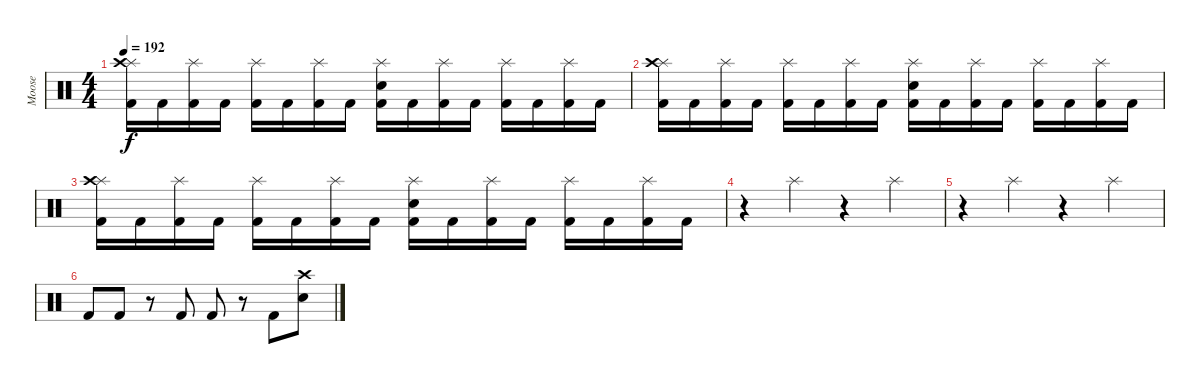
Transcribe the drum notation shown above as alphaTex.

\track ("Moose" "Moose") {instrument percussion}
\staff {score}
\articulation defaults
\ts (4 4)
\tempo 192
\clef neutral
\ks c
("Splash (hit)" "Crash high (hit)" "Kick (hit) 2").16{dy f} "Kick (hit) 2".16 ("Splash (hit)" "Kick (hit) 2").16 "Kick (hit) 2".16 ("Splash (hit)" "Kick (hit) 2").16 "Kick (hit) 2".16 ("Splash (hit)" "Kick (hit) 2").16 "Kick (hit) 2".16 ("Splash (hit)" "Electric Snare (hit)" "Kick (hit) 2").16 "Kick (hit) 2".16 ("Splash (hit)" "Kick (hit) 2").16 "Kick (hit) 2".16 ("Splash (hit)" "Kick (hit) 2").16 "Kick (hit) 2".16 ("Splash (hit)" "Kick (hit) 2").16 "Kick (hit) 2".16 |
("Splash (hit)" "Crash high (hit)" "Kick (hit) 2").16 "Kick (hit) 2".16 ("Splash (hit)" "Kick (hit) 2").16 "Kick (hit) 2".16 ("Splash (hit)" "Kick (hit) 2").16 "Kick (hit) 2".16 ("Splash (hit)" "Kick (hit) 2").16 "Kick (hit) 2".16 ("Splash (hit)" "Electric Snare (hit)" "Kick (hit) 2").16 "Kick (hit) 2".16 ("Splash (hit)" "Kick (hit) 2").16 "Kick (hit) 2".16 ("Splash (hit)" "Kick (hit) 2").16 "Kick (hit) 2".16 ("Splash (hit)" "Kick (hit) 2").16 "Kick (hit) 2".16 |
("Splash (hit)" "Crash high (hit)" "Kick (hit) 2").16 "Kick (hit) 2".16 ("Splash (hit)" "Kick (hit) 2").16 "Kick (hit) 2".16 ("Splash (hit)" "Kick (hit) 2").16 "Kick (hit) 2".16 ("Splash (hit)" "Kick (hit) 2").16 "Kick (hit) 2".16 ("Splash (hit)" "Electric Snare (hit)" "Kick (hit) 2").16 "Kick (hit) 2".16 ("Splash (hit)" "Kick (hit) 2").16 "Kick (hit) 2".16 ("Splash (hit)" "Kick (hit) 2").16 "Kick (hit) 2".16 ("Splash (hit)" "Kick (hit) 2").16 "Kick (hit) 2".16 |
r.4 "Splash (hit)".4 r.4 "Splash (hit)".4 |
r.4 "Splash (hit)".4 r.4 "Splash (hit)".4 |
"Kick (hit) 2".8 "Kick (hit) 2".8 r.8 "Kick (hit) 2".8 "Kick (hit) 2".8 r.8 "Kick (hit) 2".8 ("Electric Snare (hit)" "Crash high (hit)").8
